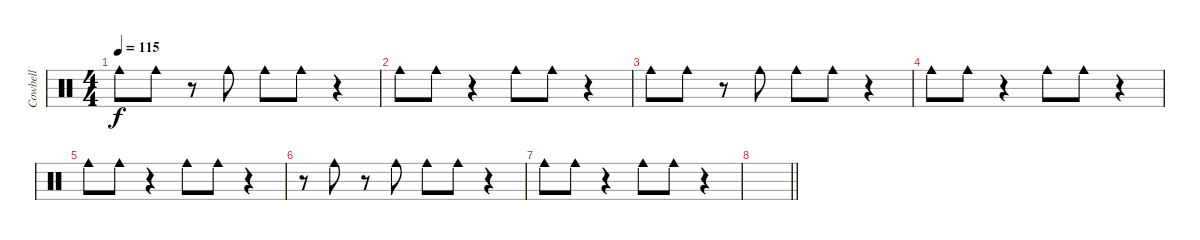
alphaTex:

\track ("Cowbell" "Cowbell") {instrument percussion}
\staff {score}
\articulation defaults
\ts (4 4)
\tempo 115
\clef neutral
\ks c "Cowbell medium (hit)".8{dy f} "Cowbell medium (hit)".8
r.8 "Cowbell medium (hit)".8 "Cowbell medium (hit)".8 "Cowbell medium (hit)".8 r.4 |
"Cowbell medium (hit)".8 "Cowbell medium (hit)".8 r.4 "Cowbell medium (hit)".8 "Cowbell medium (hit)".8 r.4 |
"Cowbell medium (hit)".8 "Cowbell medium (hit)".8 r.8 "Cowbell medium (hit)".8 "Cowbell medium (hit)".8 "Cowbell medium (hit)".8 r.4 |
"Cowbell medium (hit)".8 "Cowbell medium (hit)".8 r.4 "Cowbell medium (hit)".8 "Cowbell medium (hit)".8 r.4 |
"Cowbell medium (hit)".8 "Cowbell medium (hit)".8 r.4 "Cowbell medium (hit)".8 "Cowbell medium (hit)".8 r.4 |
r.8 "Cowbell medium (hit)".8 r.8 "Cowbell medium (hit)".8 "Cowbell medium (hit)".8 "Cowbell medium (hit)".8 r.4 |
"Cowbell medium (hit)".8 "Cowbell medium (hit)".8 r.4 "Cowbell medium (hit)".8 "Cowbell medium (hit)".8 r.4 |
\barLineRight lightlight
